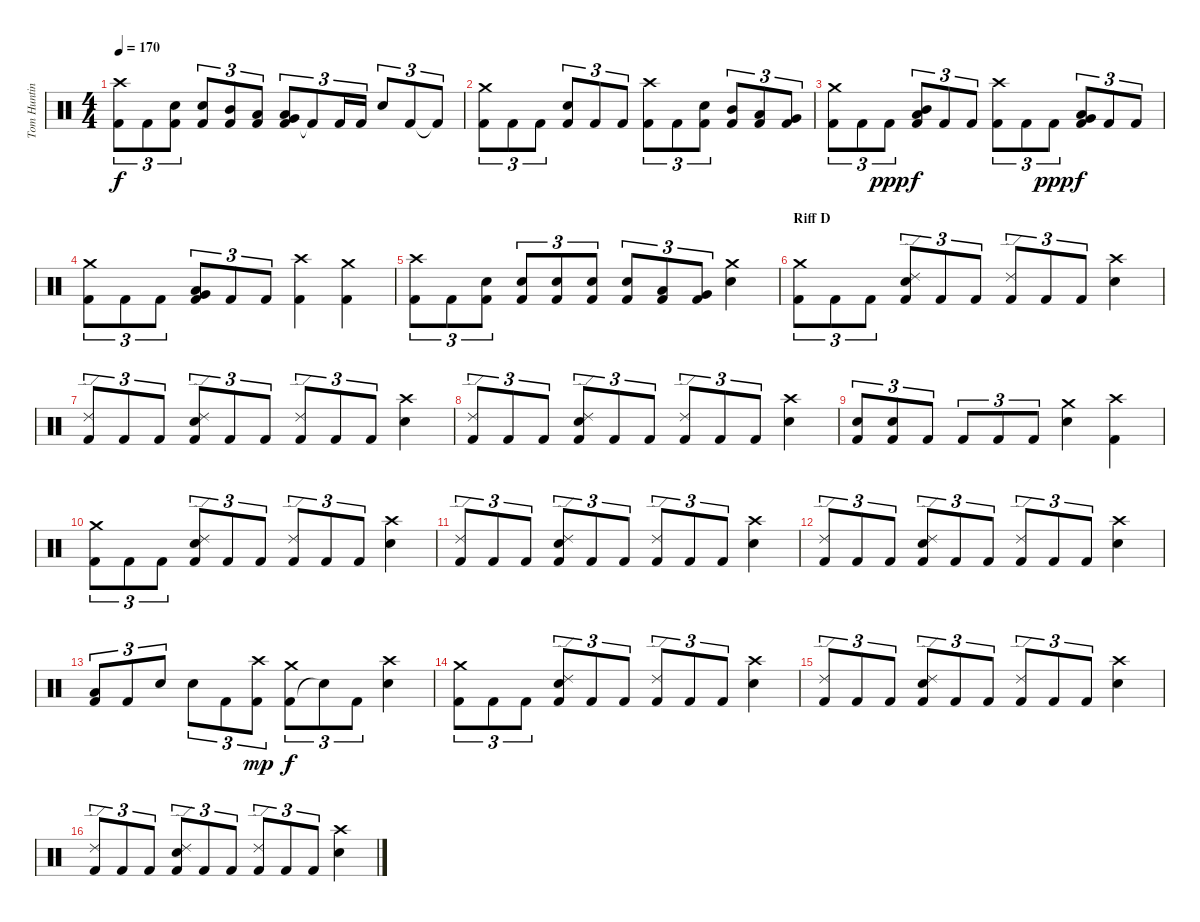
\track ("Tom Hunting" "Tom Huntin") {instrument percussion}
\staff {score}
\articulation defaults
\ts (4 4)
\tempo 170
\clef neutral
\ks c
("Kick (hit) 2" "Crash high (hit)").8{tu (3 2) dy f} "Kick (hit) 2".8{tu (3 2)} ("Kick (hit) 2" "Snare (hit) 2").8{tu (3 2)} ("Kick (hit) 2" "Snare (hit) 2").8{tu (3 2)} ("Kick (hit) 2" "Mid Tom (hit)").8{tu (3 2)} ("Kick (hit) 2" "Low Tom (hit)").8{tu (3 2)} ("Kick (hit) 2" "Very Low Tom (hit)" "Low Tom (hit)").8{tu (3 2)} "Kick (hit) 2"{t}.8{tu (3 2)} "Kick (hit) 2".16{tu (3 2)} "Kick (hit) 2".16{tu (3 2)} "Snare (hit) 2".8{tu (3 2)} "Kick (hit) 2".8{tu (3 2)} "Kick (hit) 2"{t}.8{tu (3 2)} |
("Kick (hit) 2" "Crash medium (hit)").8{tu (3 2)} "Kick (hit) 2".8{tu (3 2)} "Kick (hit) 2".8{tu (3 2)} ("Kick (hit) 2" "Snare (hit) 2").8{tu (3 2)} "Kick (hit) 2".8{tu (3 2)} "Kick (hit) 2".8{tu (3 2)} ("Kick (hit) 2" "Crash high (hit)").8{tu (3 2)} "Kick (hit) 2".8{tu (3 2)} ("Kick (hit) 2" "Snare (hit) 2").8{tu (3 2)} ("Kick (hit) 2" "Mid Tom (hit)").8{tu (3 2)} ("Kick (hit) 2" "Low Tom (hit)").8{tu (3 2)} ("Kick (hit) 2" "Very Low Tom (hit)").8{tu (3 2)} |
("Kick (hit) 2" "Crash medium (hit)").8{tu (3 2)} "Kick (hit) 2".8{tu (3 2)} "Kick (hit) 2".8{tu (3 2) dy ppp} ("Kick (hit) 2" "Mid Tom (hit)" "Low Tom (hit)").8{tu (3 2) dy f} "Kick (hit) 2".8{tu (3 2)} "Kick (hit) 2".8{tu (3 2)} ("Kick (hit) 2" "Crash high (hit)").8{tu (3 2)} "Kick (hit) 2".8{tu (3 2)} "Kick (hit) 2".8{tu (3 2) dy ppp} ("Kick (hit) 2" "Low Tom (hit)" "Very Low Tom (hit)").8{tu (3 2) dy f} "Kick (hit) 2".8{tu (3 2)} "Kick (hit) 2".8{tu (3 2)} |
("Kick (hit) 2" "Crash medium (hit)").8{tu (3 2)} "Kick (hit) 2".8{tu (3 2)} "Kick (hit) 2".8{tu (3 2)} ("Kick (hit) 2" "Very Low Tom (hit)" "Low Floor Tom (hit)").8{tu (3 2)} "Kick (hit) 2".8{tu (3 2)} "Kick (hit) 2".8{tu (3 2)} ("Kick (hit) 2" "Crash high (hit)").4 ("Kick (hit) 2" "Crash medium (hit)").4 |
("Kick (hit) 2" "Crash high (hit)").8{tu (3 2)} "Kick (hit) 2".8{tu (3 2)} ("Kick (hit) 2" "Snare (hit) 2").8{tu (3 2)} ("Kick (hit) 2" "Snare (hit) 2").8{tu (3 2)} ("Kick (hit) 2" "Snare (hit) 2").8{tu (3 2)} ("Kick (hit) 2" "Snare (hit) 2").8{tu (3 2)} ("Kick (hit) 2" "Snare (hit) 2").8{tu (3 2)} ("Kick (hit) 2" "Low Tom (hit)").8{tu (3 2)} ("Kick (hit) 2" "Very Low Tom (hit)").8{tu (3 2)} ("Crash medium (hit)" "Snare (hit) 2").4 |
\section ("" "Riff D")
("Kick (hit) 2" "Crash medium (hit)").8{tu (3 2)} "Kick (hit) 2".8{tu (3 2)} "Kick (hit) 2".8{tu (3 2)} ("Kick (hit) 2" "Ride (edge) 2" "Snare (hit) 2").8{tu (3 2)} "Kick (hit) 2".8{tu (3 2)} "Kick (hit) 2".8{tu (3 2)} ("Kick (hit) 2" "Ride (edge) 2").8{tu (3 2)} "Kick (hit) 2".8{tu (3 2)} "Kick (hit) 2".8{tu (3 2)} ("Crash high (hit)" "Snare (hit) 2").4 |
("Kick (hit) 2" "Ride (edge) 2").8{tu (3 2)} "Kick (hit) 2".8{tu (3 2)} "Kick (hit) 2".8{tu (3 2)} ("Kick (hit) 2" "Ride (edge) 2" "Snare (hit) 2").8{tu (3 2)} "Kick (hit) 2".8{tu (3 2)} "Kick (hit) 2".8{tu (3 2)} ("Kick (hit) 2" "Ride (edge) 2").8{tu (3 2)} "Kick (hit) 2".8{tu (3 2)} "Kick (hit) 2".8{tu (3 2)} ("Crash high (hit)" "Snare (hit) 2").4 |
("Kick (hit) 2" "Ride (edge) 2").8{tu (3 2)} "Kick (hit) 2".8{tu (3 2)} "Kick (hit) 2".8{tu (3 2)} ("Kick (hit) 2" "Ride (edge) 2" "Snare (hit) 2").8{tu (3 2)} "Kick (hit) 2".8{tu (3 2)} "Kick (hit) 2".8{tu (3 2)} ("Kick (hit) 2" "Ride (edge) 2").8{tu (3 2)} "Kick (hit) 2".8{tu (3 2)} "Kick (hit) 2".8{tu (3 2)} ("Crash high (hit)" "Snare (hit) 2").4 |
("Kick (hit) 2" "Snare (hit) 2").8{tu (3 2)} ("Kick (hit) 2" "Snare (hit) 2").8{tu (3 2)} "Kick (hit) 2".8{tu (3 2)} "Kick (hit) 2".8{tu (3 2)} "Kick (hit) 2".8{tu (3 2)} "Kick (hit) 2".8{tu (3 2)} ("Crash medium (hit)" "Snare (hit) 2").4 ("Kick (hit) 2" "Crash high (hit)").4 |
("Kick (hit) 2" "Crash medium (hit)").8{tu (3 2)} "Kick (hit) 2".8{tu (3 2)} "Kick (hit) 2".8{tu (3 2)} ("Kick (hit) 2" "Ride (edge) 2" "Snare (hit) 2").8{tu (3 2)} "Kick (hit) 2".8{tu (3 2)} "Kick (hit) 2".8{tu (3 2)} ("Kick (hit) 2" "Ride (edge) 2").8{tu (3 2)} "Kick (hit) 2".8{tu (3 2)} "Kick (hit) 2".8{tu (3 2)} ("Crash high (hit)" "Snare (hit) 2").4 |
("Kick (hit) 2" "Ride (edge) 2").8{tu (3 2)} "Kick (hit) 2".8{tu (3 2)} "Kick (hit) 2".8{tu (3 2)} ("Kick (hit) 2" "Ride (edge) 2" "Snare (hit) 2").8{tu (3 2)} "Kick (hit) 2".8{tu (3 2)} "Kick (hit) 2".8{tu (3 2)} ("Kick (hit) 2" "Ride (edge) 2").8{tu (3 2)} "Kick (hit) 2".8{tu (3 2)} "Kick (hit) 2".8{tu (3 2)} ("Crash high (hit)" "Snare (hit) 2").4 |
("Kick (hit) 2" "Ride (edge) 2").8{tu (3 2)} "Kick (hit) 2".8{tu (3 2)} "Kick (hit) 2".8{tu (3 2)} ("Kick (hit) 2" "Ride (edge) 2" "Snare (hit) 2").8{tu (3 2)} "Kick (hit) 2".8{tu (3 2)} "Kick (hit) 2".8{tu (3 2)} ("Kick (hit) 2" "Ride (edge) 2").8{tu (3 2)} "Kick (hit) 2".8{tu (3 2)} "Kick (hit) 2".8{tu (3 2)} ("Crash high (hit)" "Snare (hit) 2").4 |
("Kick (hit) 2" "Low Tom (hit)").8{tu (3 2)} "Kick (hit) 2".8{tu (3 2)} "Snare (hit) 2".8{tu (3 2)} "Snare (hit) 2".8{tu (3 2)} "Kick (hit) 2".8{tu (3 2)} ("Kick (hit) 2" "Crash high (hit)").8{tu (3 2) dy mp} ("Kick (hit) 2" "Crash medium (hit)").8{tu (3 2) dy f} "Snare (hit)"{t}.8{tu (3 2)} "Kick (hit) 2".8{tu (3 2)} ("Crash high (hit)" "Snare (hit) 2").4 |
("Kick (hit) 2" "Crash medium (hit)").8{tu (3 2)} "Kick (hit) 2".8{tu (3 2)} "Kick (hit) 2".8{tu (3 2)} ("Kick (hit) 2" "Ride (edge) 2" "Snare (hit) 2").8{tu (3 2)} "Kick (hit) 2".8{tu (3 2)} "Kick (hit) 2".8{tu (3 2)} ("Kick (hit) 2" "Ride (edge) 2").8{tu (3 2)} "Kick (hit) 2".8{tu (3 2)} "Kick (hit) 2".8{tu (3 2)} ("Crash high (hit)" "Snare (hit) 2").4 |
("Kick (hit) 2" "Ride (edge) 2").8{tu (3 2)} "Kick (hit) 2".8{tu (3 2)} "Kick (hit) 2".8{tu (3 2)} ("Kick (hit) 2" "Ride (edge) 2" "Snare (hit) 2").8{tu (3 2)} "Kick (hit) 2".8{tu (3 2)} "Kick (hit) 2".8{tu (3 2)} ("Kick (hit) 2" "Ride (edge) 2").8{tu (3 2)} "Kick (hit) 2".8{tu (3 2)} "Kick (hit) 2".8{tu (3 2)} ("Crash high (hit)" "Snare (hit) 2").4 |
("Kick (hit) 2" "Ride (edge) 2").8{tu (3 2)} "Kick (hit) 2".8{tu (3 2)} "Kick (hit) 2".8{tu (3 2)} ("Kick (hit) 2" "Ride (edge) 2" "Snare (hit) 2").8{tu (3 2)} "Kick (hit) 2".8{tu (3 2)} "Kick (hit) 2".8{tu (3 2)} ("Kick (hit) 2" "Ride (edge) 2").8{tu (3 2)} "Kick (hit) 2".8{tu (3 2)} "Kick (hit) 2".8{tu (3 2)} ("Crash high (hit)" "Snare (hit) 2").4
